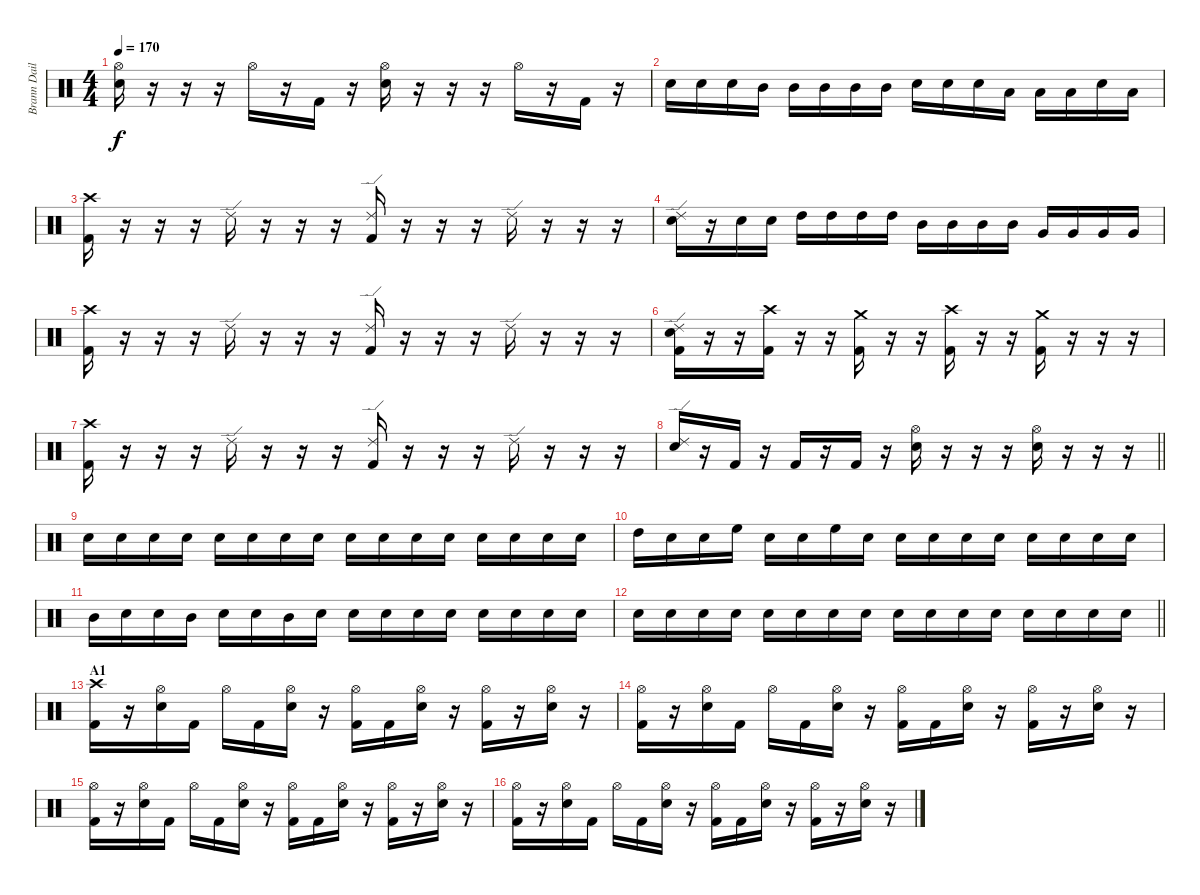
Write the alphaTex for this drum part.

\track ("Brann Dailor" "Brann Dail") {instrument percussion}
\staff {score}
\articulation defaults
\ts (4 4)
\tempo 170
\clef neutral
\ks c
("Hi-Hat (open)" "Electric Snare (hit)").16{dy f} r.16 r.16 r.16 "Hi-Hat (open)".16 r.16 "Kick (hit) 2".16 r.16 ("Hi-Hat (open)" "Electric Snare (hit)").16 r.16 r.16 r.16 "Hi-Hat (open)".16 r.16 "Kick (hit) 2".16 r.16 |
"Electric Snare (hit)".16 "Electric Snare (hit)".16 "Electric Snare (hit)".16 "Mid Tom (hit)".16 "Mid Tom (hit)".16 "Mid Tom (hit)".16 "Mid Tom (hit)".16 "Mid Tom (hit)".16 "Electric Snare (hit)".16 "Electric Snare (hit)".16 "Electric Snare (hit)".16 "Low Tom (hit)".16 "Low Tom (hit)".16 "Low Tom (hit)".16 "Electric Snare (hit)".16 "Low Tom (hit)".16 |
("Crash high (hit)" "Kick (hit) 2").16 r.16 r.16 r.16 "Ride (edge) 2".16 r.16 r.16 r.16 ("Ride (edge) 2" "Kick (hit) 2").16 r.16 r.16 r.16 "Ride (edge) 2".16 r.16 r.16 r.16 |
("Ride (edge) 2" "Electric Snare (hit)").16 r.16 "Electric Snare (hit)".16 "Electric Snare (hit)".16 "High Tom (hit)".16 "High Tom (hit)".16 "High Tom (hit)".16 "High Tom (hit)".16 "Mid Tom (hit)".16 "Mid Tom (hit)".16 "Mid Tom (hit)".16 "Mid Tom (hit)".16 "Very Low Tom (hit)".16 "Very Low Tom (hit)".16 "Very Low Tom (hit)".16 "Very Low Tom (hit)".16 |
("Crash high (hit)" "Kick (hit) 2").16 r.16 r.16 r.16 "Ride (edge) 2".16 r.16 r.16 r.16 ("Ride (edge) 2" "Kick (hit) 2").16 r.16 r.16 r.16 "Ride (edge) 2".16 r.16 r.16 r.16 |
("Ride (edge) 2" "Electric Snare (hit)" "Kick (hit) 2").16 r.16 r.16 ("Crash high (hit)" "Kick (hit) 2").16 r.16 r.16 ("Crash medium (hit)" "Kick (hit) 2").16 r.16 r.16 ("Crash high (hit)" "Kick (hit) 2").16 r.16 r.16 ("Crash medium (hit)" "Kick (hit) 2").16 r.16 r.16 r.16 |
("Crash high (hit)" "Kick (hit) 2").16 r.16 r.16 r.16 "Ride (edge) 2".16 r.16 r.16 r.16 ("Ride (edge) 2" "Kick (hit) 2").16 r.16 r.16 r.16 "Ride (edge) 2".16 r.16 r.16 r.16 |
\barLineRight lightlight
("Ride (edge) 2" "Electric Snare (hit)").16 r.16 "Kick (hit) 2".16 r.16 "Kick (hit) 2".16 r.16 "Kick (hit) 2".16 r.16 ("Hi-Hat (open)" "Electric Snare (hit)").16 r.16 r.16 r.16 ("Hi-Hat (open)" "Electric Snare (hit)").16 r.16 r.16 r.16 |
"Electric Snare (hit)".16 "Electric Snare (hit)".16 "Electric Snare (hit)".16 "Electric Snare (hit)".16 "Electric Snare (hit)".16 "Electric Snare (hit)".16 "Electric Snare (hit)".16 "Electric Snare (hit)".16 "Electric Snare (hit)".16 "Electric Snare (hit)".16 "Electric Snare (hit)".16 "Electric Snare (hit)".16 "Electric Snare (hit)".16 "Electric Snare (hit)".16 "Electric Snare (hit)".16 "Electric Snare (hit)".16 |
"High Tom (hit)".16 "Electric Snare (hit)".16 "Electric Snare (hit)".16 "High Floor Tom (hit)".16 "Electric Snare (hit)".16 "Electric Snare (hit)".16 "High Floor Tom (hit)".16 "Electric Snare (hit)".16 "Electric Snare (hit)".16 "Electric Snare (hit)".16 "Electric Snare (hit)".16 "Electric Snare (hit)".16 "Electric Snare (hit)".16 "Electric Snare (hit)".16 "Electric Snare (hit)".16 "Electric Snare (hit)".16 |
"Mid Tom (hit)".16 "Electric Snare (hit)".16 "Electric Snare (hit)".16 "Mid Tom (hit)".16 "Electric Snare (hit)".16 "Electric Snare (hit)".16 "Mid Tom (hit)".16 "Electric Snare (hit)".16 "Electric Snare (hit)".16 "Electric Snare (hit)".16 "Electric Snare (hit)".16 "Electric Snare (hit)".16 "Electric Snare (hit)".16 "Electric Snare (hit)".16 "Electric Snare (hit)".16 "Electric Snare (hit)".16 |
\barLineRight lightlight "Electric Snare (hit)".16 "Electric Snare (hit)".16 "Electric Snare (hit)".16 "Electric Snare (hit)".16 "Electric Snare (hit)".16 "Electric Snare (hit)".16 "Electric Snare (hit)".16 "Electric Snare (hit)".16 "Electric Snare (hit)".16 "Electric Snare (hit)".16 "Electric Snare (hit)".16 "Electric Snare (hit)".16 "Electric Snare (hit)".16 "Electric Snare (hit)".16 "Electric Snare (hit)".16 "Electric Snare (hit)".16
|
\section ("" "A1")
("Crash high (hit)" "Kick (hit) 2").16 r.16 ("Hi-Hat (open)" "Electric Snare (hit)").16 "Kick (hit) 2".16 "Hi-Hat (open)".16 "Kick (hit) 2".16 ("Hi-Hat (open)" "Electric Snare (hit)").16 r.16 ("Hi-Hat (open)" "Kick (hit) 2").16 "Kick (hit) 2".16 ("Hi-Hat (open)" "Electric Snare (hit)").16 r.16 ("Hi-Hat (open)" "Kick (hit) 2").16 r.16 ("Hi-Hat (open)" "Electric Snare (hit)").16 r.16 |
("Hi-Hat (open)" "Kick (hit) 2").16 r.16 ("Hi-Hat (open)" "Electric Snare (hit)").16 "Kick (hit) 2".16 "Hi-Hat (open)".16 "Kick (hit) 2".16 ("Hi-Hat (open)" "Electric Snare (hit)").16 r.16 ("Hi-Hat (open)" "Kick (hit) 2").16 "Kick (hit) 2".16 ("Hi-Hat (open)" "Electric Snare (hit)").16 r.16 ("Hi-Hat (open)" "Kick (hit) 2").16 r.16 ("Hi-Hat (open)" "Electric Snare (hit)").16 r.16 |
("Hi-Hat (open)" "Kick (hit) 2").16 r.16 ("Hi-Hat (open)" "Electric Snare (hit)").16 "Kick (hit) 2".16 "Hi-Hat (open)".16 "Kick (hit) 2".16 ("Hi-Hat (open)" "Electric Snare (hit)").16 r.16 ("Hi-Hat (open)" "Kick (hit) 2").16 "Kick (hit) 2".16 ("Hi-Hat (open)" "Electric Snare (hit)").16 r.16 ("Hi-Hat (open)" "Kick (hit) 2").16 r.16 ("Hi-Hat (open)" "Electric Snare (hit)").16 r.16 |
("Hi-Hat (open)" "Kick (hit) 2").16 r.16 ("Hi-Hat (open)" "Electric Snare (hit)").16 "Kick (hit) 2".16 "Hi-Hat (open)".16 "Kick (hit) 2".16 ("Hi-Hat (open)" "Electric Snare (hit)").16 r.16 ("Hi-Hat (open)" "Kick (hit) 2").16 "Kick (hit) 2".16 ("Hi-Hat (open)" "Electric Snare (hit)").16 r.16 ("Hi-Hat (open)" "Kick (hit) 2").16 r.16 ("Hi-Hat (open)" "Electric Snare (hit)").16 r.16
